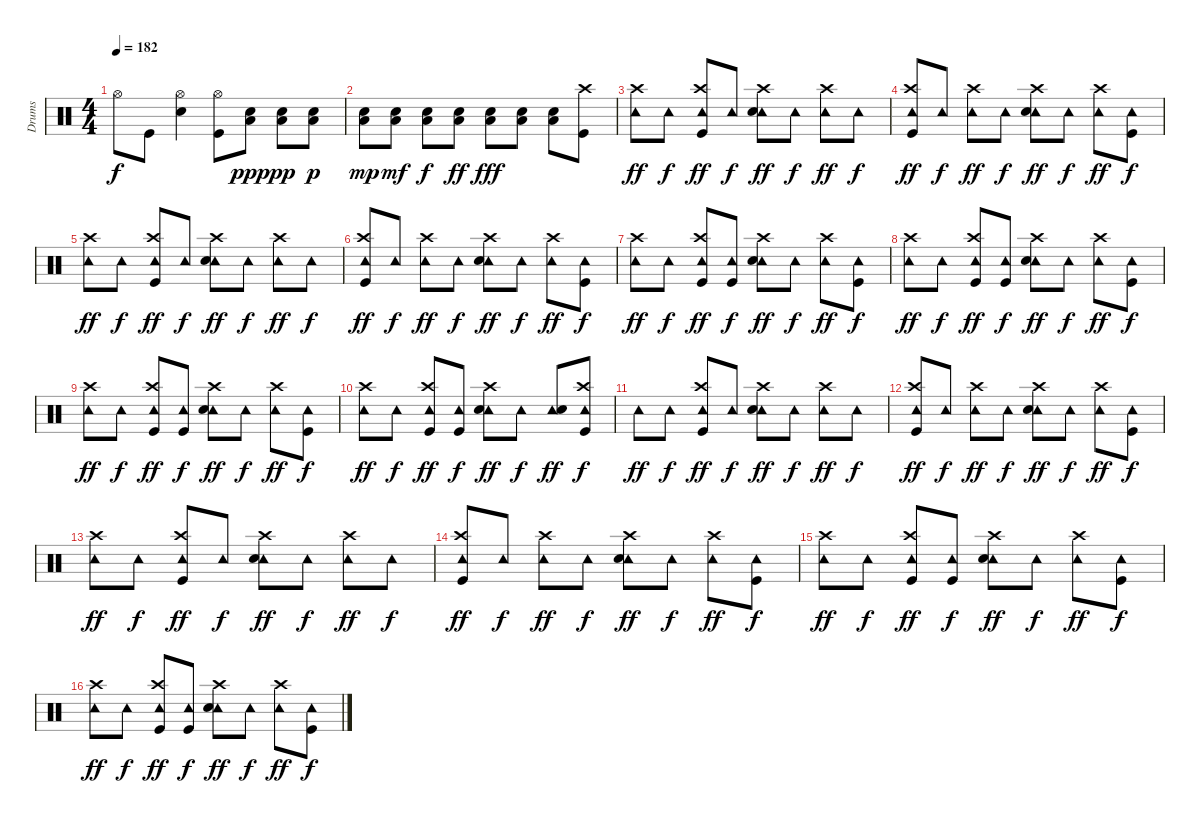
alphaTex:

\track ("Drums" "Drums") {instrument percussion}
\staff {score}
\articulation defaults
\ts (4 4)
\tempo 182
\clef neutral
\ks c "Hi-Hat (open)".8{dy f} "Kick (hit)".8
("Hi-Hat (open)" "Electric Snare (hit)").4 ("Hi-Hat (open)" "Kick (hit)").8 ("Low Floor Tom (hit)" "Electric Snare (hit)").8{dy ppp} ("Low Floor Tom (hit)" "Electric Snare (hit)").8{dy pp} ("Low Floor Tom (hit)" "Electric Snare (hit)").8{dy p} |
("Low Floor Tom (hit)" "Electric Snare (hit)").8{dy mp} ("Low Floor Tom (hit)" "Electric Snare (hit)").8{dy mf} ("Low Floor Tom (hit)" "Electric Snare (hit)").8{dy f} ("Low Floor Tom (hit)" "Electric Snare (hit)").8{dy ff} ("Low Floor Tom (hit)" "Electric Snare (hit)").8{dy fff} ("Low Floor Tom (hit)" "Electric Snare (hit)").8 ("Low Floor Tom (hit)" "Electric Snare (hit)").8 ("Crash high (hit)" "Kick (hit)").8 |
("Tambourine (hit)" "Crash high (hit)").8{dy ff} "Tambourine (hit)".8{dy f} ("Tambourine (hit)" "Crash high (hit)" "Kick (hit)").8{dy ff} "Tambourine (hit)".8{dy f} ("Tambourine (hit)" "Crash high (hit)" "Electric Snare (hit)").8{dy ff} "Tambourine (hit)".8{dy f} ("Tambourine (hit)" "Crash high (hit)").8{dy ff} "Tambourine (hit)".8{dy f} |
("Tambourine (hit)" "Kick (hit)" "Crash high (hit)").8{dy ff} "Tambourine (hit)".8{dy f} ("Tambourine (hit)" "Crash high (hit)").8{dy ff} "Tambourine (hit)".8{dy f} ("Tambourine (hit)" "Crash high (hit)" "Electric Snare (hit)").8{dy ff} "Tambourine (hit)".8{dy f} ("Tambourine (hit)" "Crash high (hit)").8{dy ff} ("Tambourine (hit)" "Kick (hit)").8{dy f} |
("Tambourine (hit)" "Crash high (hit)").8{dy ff} "Tambourine (hit)".8{dy f} ("Tambourine (hit)" "Crash high (hit)" "Kick (hit)").8{dy ff} "Tambourine (hit)".8{dy f} ("Tambourine (hit)" "Crash high (hit)" "Electric Snare (hit)").8{dy ff} "Tambourine (hit)".8{dy f} ("Tambourine (hit)" "Crash high (hit)").8{dy ff} "Tambourine (hit)".8{dy f} |
("Tambourine (hit)" "Kick (hit)" "Crash high (hit)").8{dy ff} "Tambourine (hit)".8{dy f} ("Tambourine (hit)" "Crash high (hit)").8{dy ff} "Tambourine (hit)".8{dy f} ("Tambourine (hit)" "Crash high (hit)" "Electric Snare (hit)").8{dy ff} "Tambourine (hit)".8{dy f} ("Tambourine (hit)" "Crash high (hit)").8{dy ff} ("Tambourine (hit)" "Kick (hit)").8{dy f} |
("Tambourine (hit)" "Crash high (hit)").8{dy ff} "Tambourine (hit)".8{dy f} ("Tambourine (hit)" "Crash high (hit)" "Kick (hit)").8{dy ff} ("Tambourine (hit)" "Kick (hit)").8{dy f} ("Tambourine (hit)" "Crash high (hit)" "Electric Snare (hit)").8{dy ff} "Tambourine (hit)".8{dy f} ("Tambourine (hit)" "Crash high (hit)").8{dy ff} ("Tambourine (hit)" "Kick (hit)").8{dy f} |
("Tambourine (hit)" "Crash high (hit)").8{dy ff} "Tambourine (hit)".8{dy f} ("Tambourine (hit)" "Crash high (hit)" "Kick (hit)").8{dy ff} ("Tambourine (hit)" "Kick (hit)").8{dy f} ("Tambourine (hit)" "Crash high (hit)" "Electric Snare (hit)").8{dy ff} "Tambourine (hit)".8{dy f} ("Tambourine (hit)" "Crash high (hit)").8{dy ff} ("Tambourine (hit)" "Kick (hit)").8{dy f} |
("Tambourine (hit)" "Crash high (hit)").8{dy ff} "Tambourine (hit)".8{dy f} ("Tambourine (hit)" "Crash high (hit)" "Kick (hit)").8{dy ff} ("Tambourine (hit)" "Kick (hit)").8{dy f} ("Tambourine (hit)" "Crash high (hit)" "Electric Snare (hit)").8{dy ff} "Tambourine (hit)".8{dy f} ("Tambourine (hit)" "Crash high (hit)").8{dy ff} ("Tambourine (hit)" "Kick (hit)").8{dy f} |
("Tambourine (hit)" "Crash high (hit)").8{dy ff} "Tambourine (hit)".8{dy f} ("Tambourine (hit)" "Crash high (hit)" "Kick (hit)").8{dy ff} ("Tambourine (hit)" "Kick (hit)").8{dy f} ("Tambourine (hit)" "Crash high (hit)" "Electric Snare (hit)").8{dy ff} "Tambourine (hit)".8{dy f} ("Tambourine (hit)" "Electric Snare (hit)").8{dy ff} ("Tambourine (hit)" "Crash high (hit)" "Kick (hit)").8{dy f} |
"Tambourine (hit)".8{dy ff} "Tambourine (hit)".8{dy f} ("Tambourine (hit)" "Crash high (hit)" "Kick (hit)").8{dy ff} "Tambourine (hit)".8{dy f} ("Tambourine (hit)" "Crash high (hit)" "Electric Snare (hit)").8{dy ff} "Tambourine (hit)".8{dy f} ("Tambourine (hit)" "Crash high (hit)").8{dy ff} "Tambourine (hit)".8{dy f} |
("Tambourine (hit)" "Kick (hit)" "Crash high (hit)").8{dy ff} "Tambourine (hit)".8{dy f} ("Tambourine (hit)" "Crash high (hit)").8{dy ff} "Tambourine (hit)".8{dy f} ("Tambourine (hit)" "Crash high (hit)" "Electric Snare (hit)").8{dy ff} "Tambourine (hit)".8{dy f} ("Tambourine (hit)" "Crash high (hit)").8{dy ff} ("Tambourine (hit)" "Kick (hit)").8{dy f} |
("Tambourine (hit)" "Crash high (hit)").8{dy ff} "Tambourine (hit)".8{dy f} ("Tambourine (hit)" "Crash high (hit)" "Kick (hit)").8{dy ff} "Tambourine (hit)".8{dy f} ("Tambourine (hit)" "Crash high (hit)" "Electric Snare (hit)").8{dy ff} "Tambourine (hit)".8{dy f} ("Tambourine (hit)" "Crash high (hit)").8{dy ff} "Tambourine (hit)".8{dy f} |
("Tambourine (hit)" "Kick (hit)" "Crash high (hit)").8{dy ff} "Tambourine (hit)".8{dy f} ("Tambourine (hit)" "Crash high (hit)").8{dy ff} "Tambourine (hit)".8{dy f} ("Tambourine (hit)" "Crash high (hit)" "Electric Snare (hit)").8{dy ff} "Tambourine (hit)".8{dy f} ("Tambourine (hit)" "Crash high (hit)").8{dy ff} ("Tambourine (hit)" "Kick (hit)").8{dy f} |
("Tambourine (hit)" "Crash high (hit)").8{dy ff} "Tambourine (hit)".8{dy f} ("Tambourine (hit)" "Crash high (hit)" "Kick (hit)").8{dy ff} ("Tambourine (hit)" "Kick (hit)").8{dy f} ("Tambourine (hit)" "Crash high (hit)" "Electric Snare (hit)").8{dy ff} "Tambourine (hit)".8{dy f} ("Tambourine (hit)" "Crash high (hit)").8{dy ff} ("Tambourine (hit)" "Kick (hit)").8{dy f} |
("Tambourine (hit)" "Crash high (hit)").8{dy ff} "Tambourine (hit)".8{dy f} ("Tambourine (hit)" "Crash high (hit)" "Kick (hit)").8{dy ff} ("Tambourine (hit)" "Kick (hit)").8{dy f} ("Tambourine (hit)" "Crash high (hit)" "Electric Snare (hit)").8{dy ff} "Tambourine (hit)".8{dy f} ("Tambourine (hit)" "Crash high (hit)").8{dy ff} ("Tambourine (hit)" "Kick (hit)").8{dy f}
